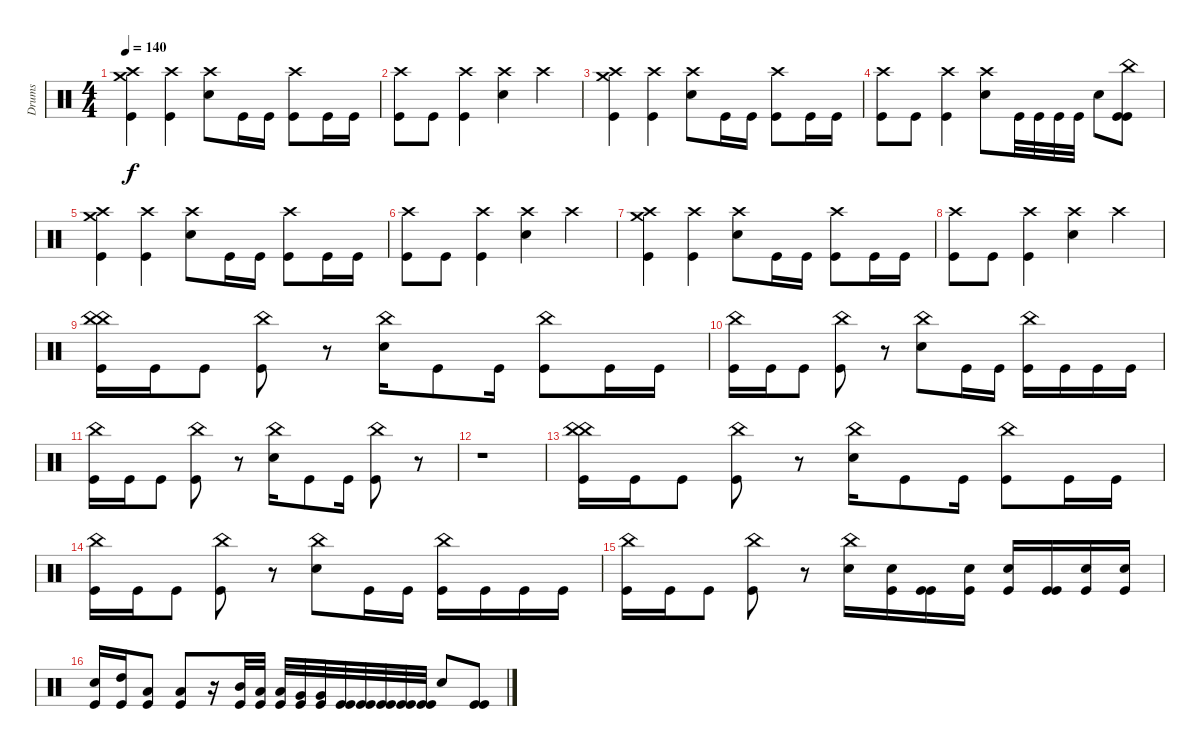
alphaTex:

\track ("Drums" "Drums") {instrument percussion bank 97}
\staff {score}
\articulation defaults
\ts (4 4)
\tempo 140
\clef neutral
\ks c
("Crash medium (hit)" "Crash high (hit)" "Kick (hit)").4{dy f} ("Crash high (hit)" "Kick (hit)").4 ("Crash high (hit)" "Electric Snare (hit)").8 "Kick (hit)".16 "Kick (hit)".16 ("Crash high (hit)" "Kick (hit)").8 "Kick (hit)".16 "Kick (hit)".16 |
("Crash high (hit)" "Kick (hit)").8 "Kick (hit)".8 ("Crash high (hit)" "Kick (hit)").4 ("Crash high (hit)" "Electric Snare (hit)").4 "Crash high (hit)".4 |
("Crash medium (hit)" "Crash high (hit)" "Kick (hit)").4 ("Crash high (hit)" "Kick (hit)").4 ("Crash high (hit)" "Electric Snare (hit)").8 "Kick (hit)".16 "Kick (hit)".16 ("Crash high (hit)" "Kick (hit)").8 "Kick (hit)".16 "Kick (hit)".16 |
("Crash high (hit)" "Kick (hit)").8 "Kick (hit)".8 ("Crash high (hit)" "Kick (hit)").4 ("Crash high (hit)" "Electric Snare (hit)").8 "Kick (hit)".32 "Kick (hit)".32 "Kick (hit)".32 "Kick (hit)".32 "Electric Snare (hit)".8 ("China (hit)" "Kick (hit)" "Kick (hit)").8 |
("Crash medium (hit)" "Crash high (hit)" "Kick (hit)").4 ("Crash high (hit)" "Kick (hit)").4 ("Crash high (hit)" "Electric Snare (hit)").8 "Kick (hit)".16 "Kick (hit)".16 ("Crash high (hit)" "Kick (hit)").8 "Kick (hit)".16 "Kick (hit)".16 |
("Crash high (hit)" "Kick (hit)").8 "Kick (hit)".8 ("Crash high (hit)" "Kick (hit)").4 ("Crash high (hit)" "Electric Snare (hit)").4 "Crash high (hit)".4 |
("Crash medium (hit)" "Crash high (hit)" "Kick (hit)").4 ("Crash high (hit)" "Kick (hit)").4 ("Crash high (hit)" "Electric Snare (hit)").8 "Kick (hit)".16 "Kick (hit)".16 ("Crash high (hit)" "Kick (hit)").8 "Kick (hit)".16 "Kick (hit)".16 |
("Crash high (hit)" "Kick (hit)").8 "Kick (hit)".8 ("Crash high (hit)" "Kick (hit)").4 ("Crash high (hit)" "Electric Snare (hit)").4 "Crash high (hit)".4 |
("China (hit)" "China (hit)" "Kick (hit)").16 "Kick (hit)".16 "Kick (hit)".8 ("China (hit)" "Kick (hit)").8 r.8 ("China (hit)" "Electric Snare (hit)").16 "Kick (hit)".8 "Kick (hit)".16 ("China (hit)" "Kick (hit)").8 "Kick (hit)".16 "Kick (hit)".16 |
("China (hit)" "Kick (hit)").16 "Kick (hit)".16 "Kick (hit)".8 ("China (hit)" "Kick (hit)").8 r.8 ("China (hit)" "Electric Snare (hit)").8 "Kick (hit)".16 "Kick (hit)".16 ("China (hit)" "Kick (hit)").16 "Kick (hit)".16 "Kick (hit)".16 "Kick (hit)".16 |
("China (hit)" "Kick (hit)").16 "Kick (hit)".16 "Kick (hit)".8 ("China (hit)" "Kick (hit)").8 r.8 ("China (hit)" "Electric Snare (hit)").16 "Kick (hit)".8 "Kick (hit)".16 ("China (hit)" "Kick (hit)").8 r.8 |
r.1 |
("China (hit)" "China (hit)" "Kick (hit)").16 "Kick (hit)".16 "Kick (hit)".8 ("China (hit)" "Kick (hit)").8 r.8 ("China (hit)" "Electric Snare (hit)").16 "Kick (hit)".8 "Kick (hit)".16 ("China (hit)" "Kick (hit)").8 "Kick (hit)".16 "Kick (hit)".16 |
("China (hit)" "Kick (hit)").16 "Kick (hit)".16 "Kick (hit)".8 ("China (hit)" "Kick (hit)").8 r.8 ("China (hit)" "Electric Snare (hit)").8 "Kick (hit)".16 "Kick (hit)".16 ("China (hit)" "Kick (hit)").16 "Kick (hit)".16 "Kick (hit)".16 "Kick (hit)".16 |
("China (hit)" "Kick (hit)").16 "Kick (hit)".16 "Kick (hit)".8 ("China (hit)" "Kick (hit)").8 r.8 ("China (hit)" "Electric Snare (hit)").16 ("Electric Snare (hit)" "Kick (hit)").16 ("Kick (hit)" "Kick (hit)").16 ("Electric Snare (hit)" "Kick (hit)").16 ("Electric Snare (hit)" "Kick (hit)").16 ("Kick (hit)" "Kick (hit)").16 ("Electric Snare (hit)" "Kick (hit)").16 ("Electric Snare (hit)" "Kick (hit)").16 |
("Electric Snare (hit)" "Kick (hit)").16 ("High Tom (hit)" "Kick (hit)").16 ("Low Tom (hit)" "Kick (hit)").8 ("Low Tom (hit)" "Kick (hit)").8 r.16 ("Mid Tom (hit)" "Kick (hit)").32 ("Low Tom (hit)" "Kick (hit)").32 ("Low Tom (hit)" "Kick (hit)").32 ("Very Low Tom (hit)" "Kick (hit)").32 ("Very Low Tom (hit)" "Kick (hit)").32 ("Kick (hit)" "Kick (hit)").32 ("Kick (hit)" "Kick (hit)").32 ("Kick (hit)" "Kick (hit)").32 ("Kick (hit)" "Kick (hit)").32 ("Kick (hit)" "Kick (hit)").32 "Electric Snare (hit)".8 ("Kick (hit)" "Kick (hit)").8
